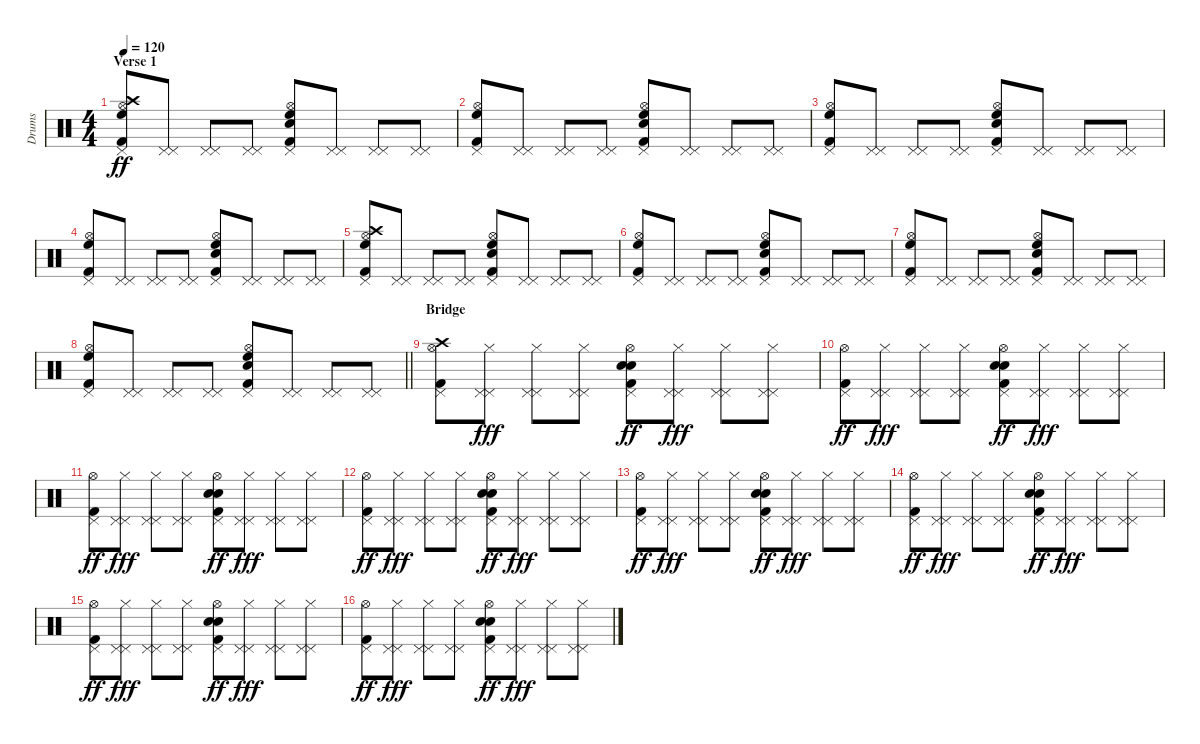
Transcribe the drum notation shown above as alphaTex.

\track ("Drums" "Drums") {instrument percussion}
\staff {score}
\articulation defaults
\ts (4 4)
\section ("" "Verse 1")
\tempo 120
\clef neutral
\ks c
("High Floor Tom (hit)" "Hi-Hat (open)" "Crash high (hit)" "Pedal Hi-Hat (hit)" "Kick (hit) 2").8{dy ff} ("Pedal Hi-Hat (hit)" "Pedal Hi-Hat (hit)").8 ("Pedal Hi-Hat (hit)" "Pedal Hi-Hat (hit)").8 ("Pedal Hi-Hat (hit)" "Pedal Hi-Hat (hit)").8 ("High Floor Tom (hit)" "Hi-Hat (open)" "Electric Snare (hit)" "Pedal Hi-Hat (hit)" "Kick (hit) 2").8 ("Pedal Hi-Hat (hit)" "Pedal Hi-Hat (hit)").8 ("Pedal Hi-Hat (hit)" "Pedal Hi-Hat (hit)").8 ("Pedal Hi-Hat (hit)" "Pedal Hi-Hat (hit)").8 |
("High Floor Tom (hit)" "Hi-Hat (open)" "Pedal Hi-Hat (hit)" "Kick (hit) 2").8 ("Pedal Hi-Hat (hit)" "Pedal Hi-Hat (hit)").8 ("Pedal Hi-Hat (hit)" "Pedal Hi-Hat (hit)").8 ("Pedal Hi-Hat (hit)" "Pedal Hi-Hat (hit)").8 ("High Floor Tom (hit)" "Hi-Hat (open)" "Electric Snare (hit)" "Pedal Hi-Hat (hit)" "Kick (hit) 2").8 ("Pedal Hi-Hat (hit)" "Pedal Hi-Hat (hit)").8 ("Pedal Hi-Hat (hit)" "Pedal Hi-Hat (hit)").8 ("Pedal Hi-Hat (hit)" "Pedal Hi-Hat (hit)").8 |
("High Floor Tom (hit)" "Hi-Hat (open)" "Pedal Hi-Hat (hit)" "Kick (hit) 2").8 ("Pedal Hi-Hat (hit)" "Pedal Hi-Hat (hit)").8 ("Pedal Hi-Hat (hit)" "Pedal Hi-Hat (hit)").8 ("Pedal Hi-Hat (hit)" "Pedal Hi-Hat (hit)").8 ("High Floor Tom (hit)" "Hi-Hat (open)" "Electric Snare (hit)" "Pedal Hi-Hat (hit)" "Kick (hit) 2").8 ("Pedal Hi-Hat (hit)" "Pedal Hi-Hat (hit)").8 ("Pedal Hi-Hat (hit)" "Pedal Hi-Hat (hit)").8 ("Pedal Hi-Hat (hit)" "Pedal Hi-Hat (hit)").8 |
("High Floor Tom (hit)" "Hi-Hat (open)" "Pedal Hi-Hat (hit)" "Kick (hit) 2").8 ("Pedal Hi-Hat (hit)" "Pedal Hi-Hat (hit)").8 ("Pedal Hi-Hat (hit)" "Pedal Hi-Hat (hit)").8 ("Pedal Hi-Hat (hit)" "Pedal Hi-Hat (hit)").8 ("High Floor Tom (hit)" "Hi-Hat (open)" "Electric Snare (hit)" "Pedal Hi-Hat (hit)" "Kick (hit) 2").8 ("Pedal Hi-Hat (hit)" "Pedal Hi-Hat (hit)").8 ("Pedal Hi-Hat (hit)" "Pedal Hi-Hat (hit)").8 ("Pedal Hi-Hat (hit)" "Pedal Hi-Hat (hit)").8 |
("High Floor Tom (hit)" "Hi-Hat (open)" "Crash high (hit)" "Pedal Hi-Hat (hit)" "Kick (hit) 2").8 ("Pedal Hi-Hat (hit)" "Pedal Hi-Hat (hit)").8 ("Pedal Hi-Hat (hit)" "Pedal Hi-Hat (hit)").8 ("Pedal Hi-Hat (hit)" "Pedal Hi-Hat (hit)").8 ("High Floor Tom (hit)" "Hi-Hat (open)" "Electric Snare (hit)" "Pedal Hi-Hat (hit)" "Kick (hit) 2").8 ("Pedal Hi-Hat (hit)" "Pedal Hi-Hat (hit)").8 ("Pedal Hi-Hat (hit)" "Pedal Hi-Hat (hit)").8 ("Pedal Hi-Hat (hit)" "Pedal Hi-Hat (hit)").8 |
("High Floor Tom (hit)" "Hi-Hat (open)" "Pedal Hi-Hat (hit)" "Kick (hit) 2").8 ("Pedal Hi-Hat (hit)" "Pedal Hi-Hat (hit)").8 ("Pedal Hi-Hat (hit)" "Pedal Hi-Hat (hit)").8 ("Pedal Hi-Hat (hit)" "Pedal Hi-Hat (hit)").8 ("High Floor Tom (hit)" "Hi-Hat (open)" "Electric Snare (hit)" "Pedal Hi-Hat (hit)" "Kick (hit) 2").8 ("Pedal Hi-Hat (hit)" "Pedal Hi-Hat (hit)").8 ("Pedal Hi-Hat (hit)" "Pedal Hi-Hat (hit)").8 ("Pedal Hi-Hat (hit)" "Pedal Hi-Hat (hit)").8 |
("High Floor Tom (hit)" "Hi-Hat (open)" "Pedal Hi-Hat (hit)" "Kick (hit) 2").8 ("Pedal Hi-Hat (hit)" "Pedal Hi-Hat (hit)").8 ("Pedal Hi-Hat (hit)" "Pedal Hi-Hat (hit)").8 ("Pedal Hi-Hat (hit)" "Pedal Hi-Hat (hit)").8 ("High Floor Tom (hit)" "Hi-Hat (open)" "Electric Snare (hit)" "Pedal Hi-Hat (hit)" "Kick (hit) 2").8 ("Pedal Hi-Hat (hit)" "Pedal Hi-Hat (hit)").8 ("Pedal Hi-Hat (hit)" "Pedal Hi-Hat (hit)").8 ("Pedal Hi-Hat (hit)" "Pedal Hi-Hat (hit)").8 |
\barLineRight lightlight
("High Floor Tom (hit)" "Hi-Hat (open)" "Pedal Hi-Hat (hit)" "Kick (hit) 2").8 ("Pedal Hi-Hat (hit)" "Pedal Hi-Hat (hit)").8 ("Pedal Hi-Hat (hit)" "Pedal Hi-Hat (hit)").8 ("Pedal Hi-Hat (hit)" "Pedal Hi-Hat (hit)").8 ("High Floor Tom (hit)" "Hi-Hat (open)" "Electric Snare (hit)" "Pedal Hi-Hat (hit)" "Kick (hit) 2").8 ("Pedal Hi-Hat (hit)" "Pedal Hi-Hat (hit)").8 ("Pedal Hi-Hat (hit)" "Pedal Hi-Hat (hit)").8 ("Pedal Hi-Hat (hit)" "Pedal Hi-Hat (hit)").8 |
\section ("" "Bridge")
("Crash high (hit)" "Hi-Hat (open)" "Pedal Hi-Hat (hit)" "Kick (hit) 2").8 ("Hi-Hat (closed)" "Pedal Hi-Hat (hit)" "Pedal Hi-Hat (hit)").8{dy fff} ("Hi-Hat (closed)" "Pedal Hi-Hat (hit)" "Pedal Hi-Hat (hit)").8 ("Hi-Hat (closed)" "Pedal Hi-Hat (hit)" "Pedal Hi-Hat (hit)").8 ("Snare (hit) 2" "Hi-Hat (open)" "Electric Snare (hit)" "Pedal Hi-Hat (hit)" "Kick (hit) 2").8{dy ff} ("Hi-Hat (closed)" "Pedal Hi-Hat (hit)" "Pedal Hi-Hat (hit)").8{dy fff} ("Hi-Hat (closed)" "Pedal Hi-Hat (hit)" "Pedal Hi-Hat (hit)").8 ("Hi-Hat (closed)" "Pedal Hi-Hat (hit)" "Pedal Hi-Hat (hit)").8 |
("Hi-Hat (open)" "Pedal Hi-Hat (hit)" "Kick (hit) 2").8{dy ff} ("Hi-Hat (closed)" "Pedal Hi-Hat (hit)" "Pedal Hi-Hat (hit)").8{dy fff} ("Hi-Hat (closed)" "Pedal Hi-Hat (hit)" "Pedal Hi-Hat (hit)").8 ("Hi-Hat (closed)" "Pedal Hi-Hat (hit)" "Pedal Hi-Hat (hit)").8 ("Snare (hit) 2" "Hi-Hat (open)" "Electric Snare (hit)" "Pedal Hi-Hat (hit)" "Kick (hit) 2").8{dy ff} ("Hi-Hat (closed)" "Pedal Hi-Hat (hit)" "Pedal Hi-Hat (hit)").8{dy fff} ("Hi-Hat (closed)" "Pedal Hi-Hat (hit)" "Pedal Hi-Hat (hit)").8 ("Hi-Hat (closed)" "Pedal Hi-Hat (hit)" "Pedal Hi-Hat (hit)").8 |
("Hi-Hat (open)" "Pedal Hi-Hat (hit)" "Kick (hit) 2").8{dy ff} ("Hi-Hat (closed)" "Pedal Hi-Hat (hit)" "Pedal Hi-Hat (hit)").8{dy fff} ("Hi-Hat (closed)" "Pedal Hi-Hat (hit)" "Pedal Hi-Hat (hit)").8 ("Hi-Hat (closed)" "Pedal Hi-Hat (hit)" "Pedal Hi-Hat (hit)").8 ("Snare (hit) 2" "Hi-Hat (open)" "Electric Snare (hit)" "Pedal Hi-Hat (hit)" "Kick (hit) 2").8{dy ff} ("Hi-Hat (closed)" "Pedal Hi-Hat (hit)" "Pedal Hi-Hat (hit)").8{dy fff} ("Hi-Hat (closed)" "Pedal Hi-Hat (hit)" "Pedal Hi-Hat (hit)").8 ("Hi-Hat (closed)" "Pedal Hi-Hat (hit)" "Pedal Hi-Hat (hit)").8 |
("Hi-Hat (open)" "Pedal Hi-Hat (hit)" "Kick (hit) 2").8{dy ff} ("Hi-Hat (closed)" "Pedal Hi-Hat (hit)" "Pedal Hi-Hat (hit)").8{dy fff} ("Hi-Hat (closed)" "Pedal Hi-Hat (hit)" "Pedal Hi-Hat (hit)").8 ("Hi-Hat (closed)" "Pedal Hi-Hat (hit)" "Pedal Hi-Hat (hit)").8 ("Snare (hit) 2" "Hi-Hat (open)" "Electric Snare (hit)" "Pedal Hi-Hat (hit)" "Kick (hit) 2").8{dy ff} ("Hi-Hat (closed)" "Pedal Hi-Hat (hit)" "Pedal Hi-Hat (hit)").8{dy fff} ("Hi-Hat (closed)" "Pedal Hi-Hat (hit)" "Pedal Hi-Hat (hit)").8 ("Hi-Hat (closed)" "Pedal Hi-Hat (hit)" "Pedal Hi-Hat (hit)").8 |
("Hi-Hat (open)" "Pedal Hi-Hat (hit)" "Kick (hit) 2").8{dy ff} ("Hi-Hat (closed)" "Pedal Hi-Hat (hit)" "Pedal Hi-Hat (hit)").8{dy fff} ("Hi-Hat (closed)" "Pedal Hi-Hat (hit)" "Pedal Hi-Hat (hit)").8 ("Hi-Hat (closed)" "Pedal Hi-Hat (hit)" "Pedal Hi-Hat (hit)").8 ("Snare (hit) 2" "Hi-Hat (open)" "Electric Snare (hit)" "Pedal Hi-Hat (hit)" "Kick (hit) 2").8{dy ff} ("Hi-Hat (closed)" "Pedal Hi-Hat (hit)" "Pedal Hi-Hat (hit)").8{dy fff} ("Hi-Hat (closed)" "Pedal Hi-Hat (hit)" "Pedal Hi-Hat (hit)").8 ("Hi-Hat (closed)" "Pedal Hi-Hat (hit)" "Pedal Hi-Hat (hit)").8 |
("Hi-Hat (open)" "Pedal Hi-Hat (hit)" "Kick (hit) 2").8{dy ff} ("Hi-Hat (closed)" "Pedal Hi-Hat (hit)" "Pedal Hi-Hat (hit)").8{dy fff} ("Hi-Hat (closed)" "Pedal Hi-Hat (hit)" "Pedal Hi-Hat (hit)").8 ("Hi-Hat (closed)" "Pedal Hi-Hat (hit)" "Pedal Hi-Hat (hit)").8 ("Snare (hit) 2" "Hi-Hat (open)" "Electric Snare (hit)" "Pedal Hi-Hat (hit)" "Kick (hit) 2").8{dy ff} ("Hi-Hat (closed)" "Pedal Hi-Hat (hit)" "Pedal Hi-Hat (hit)").8{dy fff} ("Hi-Hat (closed)" "Pedal Hi-Hat (hit)" "Pedal Hi-Hat (hit)").8 ("Hi-Hat (closed)" "Pedal Hi-Hat (hit)" "Pedal Hi-Hat (hit)").8 |
("Hi-Hat (open)" "Pedal Hi-Hat (hit)" "Kick (hit) 2").8{dy ff} ("Hi-Hat (closed)" "Pedal Hi-Hat (hit)" "Pedal Hi-Hat (hit)").8{dy fff} ("Hi-Hat (closed)" "Pedal Hi-Hat (hit)" "Pedal Hi-Hat (hit)").8 ("Hi-Hat (closed)" "Pedal Hi-Hat (hit)" "Pedal Hi-Hat (hit)").8 ("Snare (hit) 2" "Hi-Hat (open)" "Electric Snare (hit)" "Pedal Hi-Hat (hit)" "Kick (hit) 2").8{dy ff} ("Hi-Hat (closed)" "Pedal Hi-Hat (hit)" "Pedal Hi-Hat (hit)").8{dy fff} ("Hi-Hat (closed)" "Pedal Hi-Hat (hit)" "Pedal Hi-Hat (hit)").8 ("Hi-Hat (closed)" "Pedal Hi-Hat (hit)" "Pedal Hi-Hat (hit)").8 |
("Hi-Hat (open)" "Pedal Hi-Hat (hit)" "Kick (hit) 2").8{dy ff} ("Hi-Hat (closed)" "Pedal Hi-Hat (hit)" "Pedal Hi-Hat (hit)").8{dy fff} ("Hi-Hat (closed)" "Pedal Hi-Hat (hit)" "Pedal Hi-Hat (hit)").8 ("Hi-Hat (closed)" "Pedal Hi-Hat (hit)" "Pedal Hi-Hat (hit)").8 ("Snare (hit) 2" "Hi-Hat (open)" "Electric Snare (hit)" "Pedal Hi-Hat (hit)" "Kick (hit) 2").8{dy ff} ("Hi-Hat (closed)" "Pedal Hi-Hat (hit)" "Pedal Hi-Hat (hit)").8{dy fff} ("Hi-Hat (closed)" "Pedal Hi-Hat (hit)" "Pedal Hi-Hat (hit)").8 ("Hi-Hat (closed)" "Pedal Hi-Hat (hit)" "Pedal Hi-Hat (hit)").8
